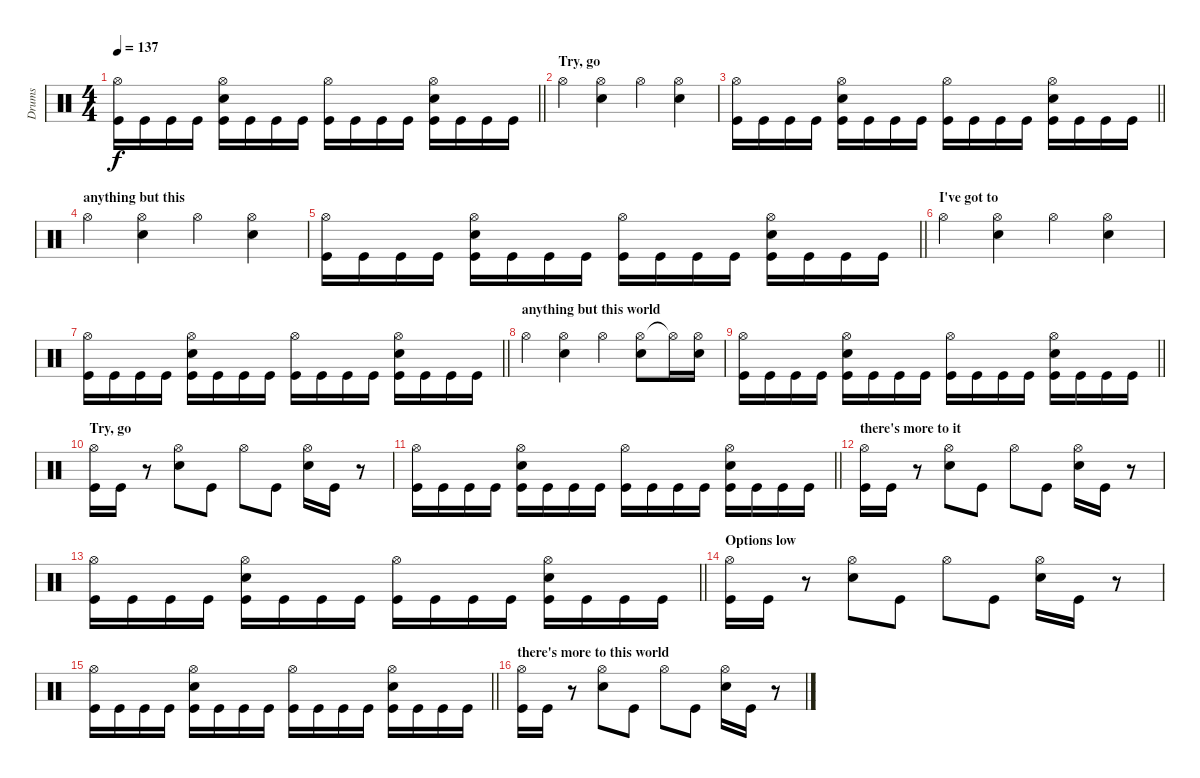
\track ("Drums" "Drums") {instrument percussion}
\staff {score}
\articulation defaults
\ts (4 4)
\tempo 137
\clef neutral
\barLineRight lightlight
\ks c
("Hi-Hat (open)" "Kick (hit)").16{dy f} "Kick (hit)".16 "Kick (hit)".16 "Kick (hit)".16 ("Hi-Hat (open)" "Snare (hit) 2" "Kick (hit)").16 "Kick (hit)".16 "Kick (hit)".16 "Kick (hit)".16 ("Hi-Hat (open)" "Kick (hit)").16 "Kick (hit)".16 "Kick (hit)".16 "Kick (hit)".16 ("Hi-Hat (open)" "Snare (hit) 2" "Kick (hit)").16 "Kick (hit)".16 "Kick (hit)".16 "Kick (hit)".16 |
\section ("" "Try, go ")
"Hi-Hat (open)".4 ("Hi-Hat (open)" "Snare (hit) 2").4 "Hi-Hat (open)".4 ("Hi-Hat (open)" "Snare (hit) 2").4 |
\barLineRight lightlight
("Hi-Hat (open)" "Kick (hit)").16 "Kick (hit)".16 "Kick (hit)".16 "Kick (hit)".16 ("Hi-Hat (open)" "Snare (hit) 2" "Kick (hit)").16 "Kick (hit)".16 "Kick (hit)".16 "Kick (hit)".16 ("Hi-Hat (open)" "Kick (hit)").16 "Kick (hit)".16 "Kick (hit)".16 "Kick (hit)".16 ("Hi-Hat (open)" "Snare (hit) 2" "Kick (hit)").16 "Kick (hit)".16 "Kick (hit)".16 "Kick (hit)".16 |
\section ("" "anything but this")
"Hi-Hat (open)".4 ("Hi-Hat (open)" "Snare (hit) 2").4 "Hi-Hat (open)".4 ("Hi-Hat (open)" "Snare (hit) 2").4 |
\barLineRight lightlight
("Hi-Hat (open)" "Kick (hit)").16 "Kick (hit)".16 "Kick (hit)".16 "Kick (hit)".16 ("Hi-Hat (open)" "Snare (hit) 2" "Kick (hit)").16 "Kick (hit)".16 "Kick (hit)".16 "Kick (hit)".16 ("Hi-Hat (open)" "Kick (hit)").16 "Kick (hit)".16 "Kick (hit)".16 "Kick (hit)".16 ("Hi-Hat (open)" "Snare (hit) 2" "Kick (hit)").16 "Kick (hit)".16 "Kick (hit)".16 "Kick (hit)".16 |
\section ("" "I've got to ")
"Hi-Hat (open)".4 ("Hi-Hat (open)" "Snare (hit) 2").4 "Hi-Hat (open)".4 ("Hi-Hat (open)" "Snare (hit) 2").4 |
\barLineRight lightlight
("Hi-Hat (open)" "Kick (hit)").16 "Kick (hit)".16 "Kick (hit)".16 "Kick (hit)".16 ("Hi-Hat (open)" "Snare (hit) 2" "Kick (hit)").16 "Kick (hit)".16 "Kick (hit)".16 "Kick (hit)".16 ("Hi-Hat (open)" "Kick (hit)").16 "Kick (hit)".16 "Kick (hit)".16 "Kick (hit)".16 ("Hi-Hat (open)" "Snare (hit) 2" "Kick (hit)").16 "Kick (hit)".16 "Kick (hit)".16 "Kick (hit)".16 |
\section ("" "anything but this world")
"Hi-Hat (open)".4 ("Hi-Hat (open)" "Snare (hit) 2").4 "Hi-Hat (open)".4 ("Hi-Hat (open)" "Snare (hit) 2").8 "Hi-Hat (open)"{t}.16 ("Hi-Hat (open)" "Snare (hit) 2").16 |
\barLineRight lightlight
("Hi-Hat (open)" "Kick (hit)").16 "Kick (hit)".16 "Kick (hit)".16 "Kick (hit)".16 ("Hi-Hat (open)" "Snare (hit) 2" "Kick (hit)").16 "Kick (hit)".16 "Kick (hit)".16 "Kick (hit)".16 ("Hi-Hat (open)" "Kick (hit)").16 "Kick (hit)".16 "Kick (hit)".16 "Kick (hit)".16 ("Hi-Hat (open)" "Snare (hit) 2" "Kick (hit)").16 "Kick (hit)".16 "Kick (hit)".16 "Kick (hit)".16 |
\section ("" "Try, go")
("Hi-Hat (open)" "Kick (hit)").16 "Kick (hit)".16 r.8 ("Hi-Hat (open)" "Snare (hit) 2").8 "Kick (hit)".8 "Hi-Hat (open)".8 "Kick (hit)".8 ("Hi-Hat (open)" "Snare (hit) 2").16 "Kick (hit)".16 r.8 |
\barLineRight lightlight
("Hi-Hat (open)" "Kick (hit)").16 "Kick (hit)".16 "Kick (hit)".16 "Kick (hit)".16 ("Hi-Hat (open)" "Snare (hit) 2" "Kick (hit)").16 "Kick (hit)".16 "Kick (hit)".16 "Kick (hit)".16 ("Hi-Hat (open)" "Kick (hit)").16 "Kick (hit)".16 "Kick (hit)".16 "Kick (hit)".16 ("Hi-Hat (open)" "Snare (hit) 2" "Kick (hit)").16 "Kick (hit)".16 "Kick (hit)".16 "Kick (hit)".16 |
\section ("" "there's more to it")
("Hi-Hat (open)" "Kick (hit)").16 "Kick (hit)".16 r.8 ("Hi-Hat (open)" "Snare (hit) 2").8 "Kick (hit)".8 "Hi-Hat (open)".8 "Kick (hit)".8 ("Hi-Hat (open)" "Snare (hit) 2").16 "Kick (hit)".16 r.8 |
\barLineRight lightlight
("Hi-Hat (open)" "Kick (hit)").16 "Kick (hit)".16 "Kick (hit)".16 "Kick (hit)".16 ("Hi-Hat (open)" "Snare (hit) 2" "Kick (hit)").16 "Kick (hit)".16 "Kick (hit)".16 "Kick (hit)".16 ("Hi-Hat (open)" "Kick (hit)").16 "Kick (hit)".16 "Kick (hit)".16 "Kick (hit)".16 ("Hi-Hat (open)" "Snare (hit) 2" "Kick (hit)").16 "Kick (hit)".16 "Kick (hit)".16 "Kick (hit)".16 |
\section ("" "Options low ")
("Hi-Hat (open)" "Kick (hit)").16 "Kick (hit)".16 r.8 ("Hi-Hat (open)" "Snare (hit) 2").8 "Kick (hit)".8 "Hi-Hat (open)".8 "Kick (hit)".8 ("Hi-Hat (open)" "Snare (hit) 2").16 "Kick (hit)".16 r.8 |
\barLineRight lightlight
("Hi-Hat (open)" "Kick (hit)").16 "Kick (hit)".16 "Kick (hit)".16 "Kick (hit)".16 ("Hi-Hat (open)" "Snare (hit) 2" "Kick (hit)").16 "Kick (hit)".16 "Kick (hit)".16 "Kick (hit)".16 ("Hi-Hat (open)" "Kick (hit)").16 "Kick (hit)".16 "Kick (hit)".16 "Kick (hit)".16 ("Hi-Hat (open)" "Snare (hit) 2" "Kick (hit)").16 "Kick (hit)".16 "Kick (hit)".16 "Kick (hit)".16 |
\section ("" "there's more to this world")
("Hi-Hat (open)" "Kick (hit)").16 "Kick (hit)".16 r.8 ("Hi-Hat (open)" "Snare (hit) 2").8 "Kick (hit)".8 "Hi-Hat (open)".8 "Kick (hit)".8 ("Hi-Hat (open)" "Snare (hit) 2").16 "Kick (hit)".16 r.8
